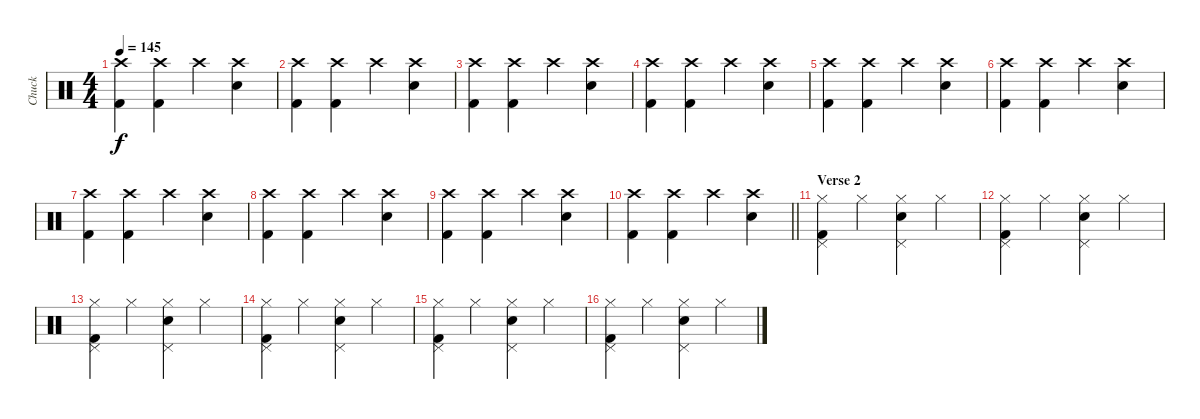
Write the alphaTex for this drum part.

\track ("Chuck" "Chuck") {instrument percussion}
\staff {score}
\articulation defaults
\ts (4 4)
\tempo 145
\clef neutral
\ks c
("Crash high (hit)" "Kick (hit) 2").4{dy f} ("Crash high (hit)" "Kick (hit) 2").4 "Crash high (hit)".4 ("Crash high (hit)" "Snare (hit) 2").4 |
("Crash high (hit)" "Kick (hit) 2").4 ("Crash high (hit)" "Kick (hit) 2").4 "Crash high (hit)".4 ("Crash high (hit)" "Snare (hit) 2").4 |
("Crash high (hit)" "Kick (hit) 2").4 ("Crash high (hit)" "Kick (hit) 2").4 "Crash high (hit)".4 ("Crash high (hit)" "Snare (hit) 2").4 |
("Crash high (hit)" "Kick (hit) 2").4 ("Crash high (hit)" "Kick (hit) 2").4 "Crash high (hit)".4 ("Crash high (hit)" "Snare (hit) 2").4 |
("Crash high (hit)" "Kick (hit) 2").4 ("Crash high (hit)" "Kick (hit) 2").4 "Crash high (hit)".4 ("Crash high (hit)" "Snare (hit) 2").4 |
("Crash high (hit)" "Kick (hit) 2").4 ("Crash high (hit)" "Kick (hit) 2").4 "Crash high (hit)".4 ("Crash high (hit)" "Snare (hit) 2").4 |
("Crash high (hit)" "Kick (hit) 2").4 ("Crash high (hit)" "Kick (hit) 2").4 "Crash high (hit)".4 ("Crash high (hit)" "Snare (hit) 2").4 |
("Crash high (hit)" "Kick (hit) 2").4 ("Crash high (hit)" "Kick (hit) 2").4 "Crash high (hit)".4 ("Crash high (hit)" "Snare (hit) 2").4 |
("Crash high (hit)" "Kick (hit) 2").4 ("Crash high (hit)" "Kick (hit) 2").4 "Crash high (hit)".4 ("Crash high (hit)" "Snare (hit) 2").4 |
\barLineRight lightlight
("Crash high (hit)" "Kick (hit) 2").4 ("Crash high (hit)" "Kick (hit) 2").4 "Crash high (hit)".4 ("Crash high (hit)" "Snare (hit) 2").4 |
\section ("" "Verse 2")
("Pedal Hi-Hat (hit)" "Hi-Hat (closed)" "Kick (hit) 2").4 "Hi-Hat (closed)".4 ("Pedal Hi-Hat (hit)" "Hi-Hat (closed)" "Snare (hit) 2").4 "Hi-Hat (closed)".4 |
("Pedal Hi-Hat (hit)" "Hi-Hat (closed)" "Kick (hit) 2").4 "Hi-Hat (closed)".4 ("Pedal Hi-Hat (hit)" "Hi-Hat (closed)" "Snare (hit) 2").4 "Hi-Hat (closed)".4 |
("Pedal Hi-Hat (hit)" "Hi-Hat (closed)" "Kick (hit) 2").4 "Hi-Hat (closed)".4 ("Pedal Hi-Hat (hit)" "Hi-Hat (closed)" "Snare (hit) 2").4 "Hi-Hat (closed)".4 |
("Pedal Hi-Hat (hit)" "Hi-Hat (closed)" "Kick (hit) 2").4 "Hi-Hat (closed)".4 ("Pedal Hi-Hat (hit)" "Hi-Hat (closed)" "Snare (hit) 2").4 "Hi-Hat (closed)".4 |
("Pedal Hi-Hat (hit)" "Hi-Hat (closed)" "Kick (hit) 2").4 "Hi-Hat (closed)".4 ("Pedal Hi-Hat (hit)" "Hi-Hat (closed)" "Snare (hit) 2").4 "Hi-Hat (closed)".4 |
("Pedal Hi-Hat (hit)" "Hi-Hat (closed)" "Kick (hit) 2").4 "Hi-Hat (closed)".4 ("Pedal Hi-Hat (hit)" "Hi-Hat (closed)" "Snare (hit) 2").4 "Hi-Hat (closed)".4
